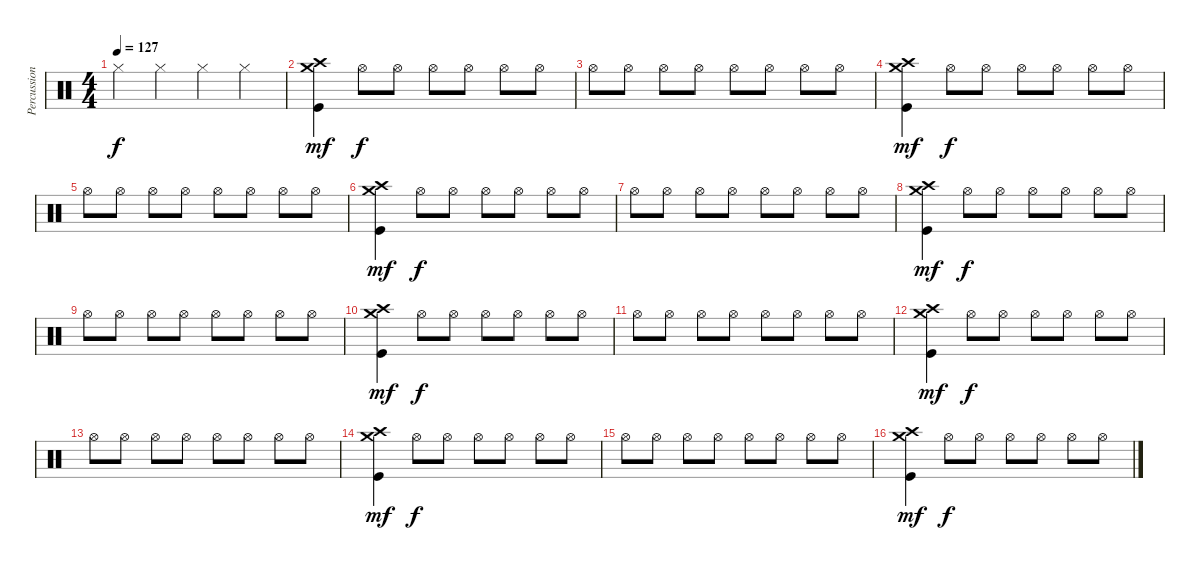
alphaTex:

\track ("Percussion" "Percussion") {instrument percussion}
\staff {score}
\articulation defaults
\ts (4 4)
\tempo 127
\clef neutral
\ks c "Hi-Hat (closed)".4{dy f} "Hi-Hat (closed)".4 "Hi-Hat (closed)".4 "Hi-Hat (closed)".4
|
("Crash medium (hit)" "Crash high (hit)" "Kick (hit)").4{dy mf volume 12} "Hi-Hat (open)".8{dy f} "Hi-Hat (open)".8 "Hi-Hat (open)".8 "Hi-Hat (open)".8 "Hi-Hat (open)".8 "Hi-Hat (open)".8 |
"Hi-Hat (open)".8 "Hi-Hat (open)".8 "Hi-Hat (open)".8 "Hi-Hat (open)".8 "Hi-Hat (open)".8 "Hi-Hat (open)".8 "Hi-Hat (open)".8 "Hi-Hat (open)".8 |
("Crash medium (hit)" "Crash high (hit)" "Kick (hit)").4{dy mf volume 12} "Hi-Hat (open)".8{dy f} "Hi-Hat (open)".8 "Hi-Hat (open)".8 "Hi-Hat (open)".8 "Hi-Hat (open)".8 "Hi-Hat (open)".8 |
"Hi-Hat (open)".8 "Hi-Hat (open)".8 "Hi-Hat (open)".8 "Hi-Hat (open)".8 "Hi-Hat (open)".8 "Hi-Hat (open)".8 "Hi-Hat (open)".8 "Hi-Hat (open)".8 |
("Crash medium (hit)" "Crash high (hit)" "Kick (hit)").4{dy mf volume 12} "Hi-Hat (open)".8{dy f} "Hi-Hat (open)".8 "Hi-Hat (open)".8 "Hi-Hat (open)".8 "Hi-Hat (open)".8 "Hi-Hat (open)".8 |
"Hi-Hat (open)".8 "Hi-Hat (open)".8 "Hi-Hat (open)".8 "Hi-Hat (open)".8 "Hi-Hat (open)".8 "Hi-Hat (open)".8 "Hi-Hat (open)".8 "Hi-Hat (open)".8 |
("Crash medium (hit)" "Crash high (hit)" "Kick (hit)").4{dy mf volume 12} "Hi-Hat (open)".8{dy f} "Hi-Hat (open)".8 "Hi-Hat (open)".8 "Hi-Hat (open)".8 "Hi-Hat (open)".8 "Hi-Hat (open)".8 |
"Hi-Hat (open)".8 "Hi-Hat (open)".8 "Hi-Hat (open)".8 "Hi-Hat (open)".8 "Hi-Hat (open)".8 "Hi-Hat (open)".8 "Hi-Hat (open)".8 "Hi-Hat (open)".8 |
("Crash medium (hit)" "Crash high (hit)" "Kick (hit)").4{dy mf volume 12} "Hi-Hat (open)".8{dy f} "Hi-Hat (open)".8 "Hi-Hat (open)".8 "Hi-Hat (open)".8 "Hi-Hat (open)".8 "Hi-Hat (open)".8 |
"Hi-Hat (open)".8 "Hi-Hat (open)".8 "Hi-Hat (open)".8 "Hi-Hat (open)".8 "Hi-Hat (open)".8 "Hi-Hat (open)".8 "Hi-Hat (open)".8 "Hi-Hat (open)".8 |
("Crash medium (hit)" "Crash high (hit)" "Kick (hit)").4{dy mf volume 12} "Hi-Hat (open)".8{dy f} "Hi-Hat (open)".8 "Hi-Hat (open)".8 "Hi-Hat (open)".8 "Hi-Hat (open)".8 "Hi-Hat (open)".8 |
"Hi-Hat (open)".8 "Hi-Hat (open)".8 "Hi-Hat (open)".8 "Hi-Hat (open)".8 "Hi-Hat (open)".8 "Hi-Hat (open)".8 "Hi-Hat (open)".8 "Hi-Hat (open)".8 |
("Crash medium (hit)" "Crash high (hit)" "Kick (hit)").4{dy mf volume 12} "Hi-Hat (open)".8{dy f} "Hi-Hat (open)".8 "Hi-Hat (open)".8 "Hi-Hat (open)".8 "Hi-Hat (open)".8 "Hi-Hat (open)".8 |
"Hi-Hat (open)".8 "Hi-Hat (open)".8 "Hi-Hat (open)".8 "Hi-Hat (open)".8 "Hi-Hat (open)".8 "Hi-Hat (open)".8 "Hi-Hat (open)".8 "Hi-Hat (open)".8 |
("Crash medium (hit)" "Crash high (hit)" "Kick (hit)").4{dy mf volume 12} "Hi-Hat (open)".8{dy f} "Hi-Hat (open)".8 "Hi-Hat (open)".8 "Hi-Hat (open)".8 "Hi-Hat (open)".8 "Hi-Hat (open)".8
